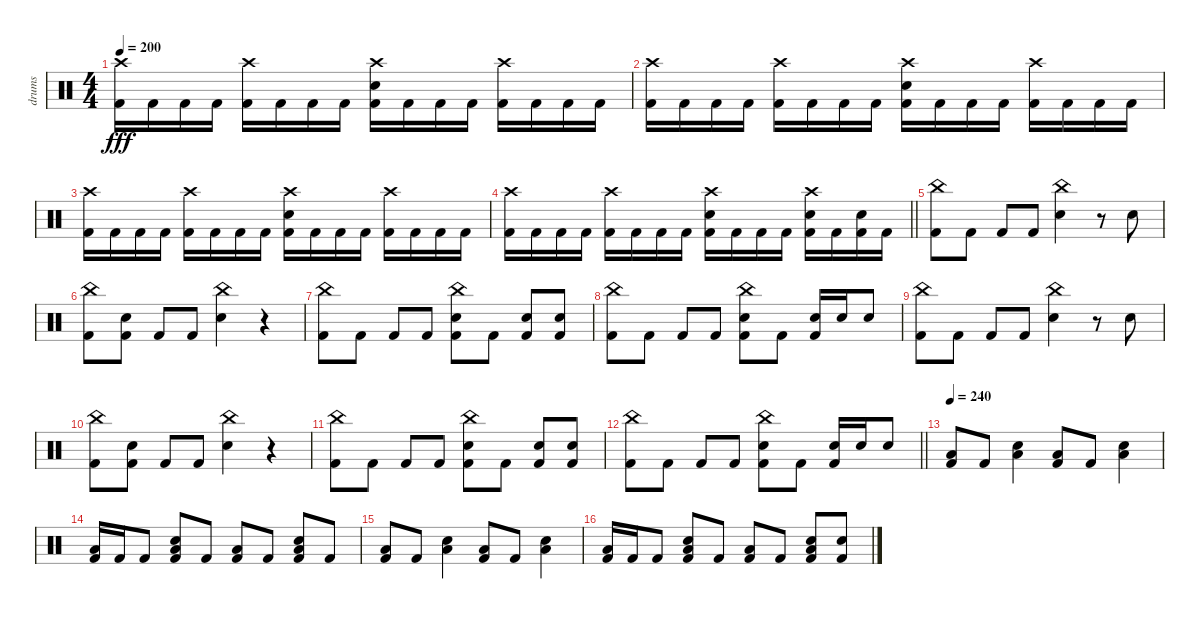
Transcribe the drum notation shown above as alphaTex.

\track ("drums" "drums") {instrument percussion}
\staff {score}
\articulation defaults
\ts (4 4)
\tempo 200
\clef neutral
\ks c
("Crash high (hit)" "Kick (hit) 2").16{dy fff} "Kick (hit) 2".16 "Kick (hit) 2".16 "Kick (hit) 2".16 ("Crash high (hit)" "Kick (hit) 2").16 "Kick (hit) 2".16 "Kick (hit) 2".16 "Kick (hit) 2".16 ("Crash high (hit)" "Electric Snare (hit)" "Kick (hit) 2").16 "Kick (hit) 2".16 "Kick (hit) 2".16 "Kick (hit) 2".16 ("Crash high (hit)" "Kick (hit) 2").16 "Kick (hit) 2".16 "Kick (hit) 2".16 "Kick (hit) 2".16 |
("Crash high (hit)" "Kick (hit) 2").16 "Kick (hit) 2".16 "Kick (hit) 2".16 "Kick (hit) 2".16 ("Crash high (hit)" "Kick (hit) 2").16 "Kick (hit) 2".16 "Kick (hit) 2".16 "Kick (hit) 2".16 ("Crash high (hit)" "Electric Snare (hit)" "Kick (hit) 2").16 "Kick (hit) 2".16 "Kick (hit) 2".16 "Kick (hit) 2".16 ("Crash high (hit)" "Kick (hit) 2").16 "Kick (hit) 2".16 "Kick (hit) 2".16 "Kick (hit) 2".16 |
("Crash high (hit)" "Kick (hit) 2").16 "Kick (hit) 2".16 "Kick (hit) 2".16 "Kick (hit) 2".16 ("Crash high (hit)" "Kick (hit) 2").16 "Kick (hit) 2".16 "Kick (hit) 2".16 "Kick (hit) 2".16 ("Crash high (hit)" "Electric Snare (hit)" "Kick (hit) 2").16 "Kick (hit) 2".16 "Kick (hit) 2".16 "Kick (hit) 2".16 ("Crash high (hit)" "Kick (hit) 2").16 "Kick (hit) 2".16 "Kick (hit) 2".16 "Kick (hit) 2".16 |
\barLineRight lightlight
("Crash high (hit)" "Kick (hit) 2").16 "Kick (hit) 2".16 "Kick (hit) 2".16 "Kick (hit) 2".16 ("Crash high (hit)" "Kick (hit) 2").16 "Kick (hit) 2".16 "Kick (hit) 2".16 "Kick (hit) 2".16 ("Crash high (hit)" "Electric Snare (hit)" "Kick (hit) 2").16 "Kick (hit) 2".16 "Kick (hit) 2".16 "Kick (hit) 2".16 ("Crash high (hit)" "Electric Snare (hit)" "Kick (hit) 2").16 "Kick (hit) 2".16 ("Electric Snare (hit)" "Kick (hit) 2").16 "Kick (hit) 2".16 |
\section ("" "")
("China (hit)" "Kick (hit) 2").8 "Kick (hit) 2".8 "Kick (hit) 2".8 "Kick (hit) 2".8 ("China (hit)" "Electric Snare (hit)").4 r.8 "Electric Snare (hit)".8 |
("China (hit)" "Kick (hit) 2").8 ("Electric Snare (hit)" "Kick (hit) 2").8 "Kick (hit) 2".8 "Kick (hit) 2".8 ("China (hit)" "Electric Snare (hit)").4 r.4 |
("China (hit)" "Kick (hit) 2").8 "Kick (hit) 2".8 "Kick (hit) 2".8 "Kick (hit) 2".8 ("China (hit)" "Electric Snare (hit)" "Kick (hit) 2").8 "Kick (hit) 2".8 ("Electric Snare (hit)" "Kick (hit) 2").8 ("Electric Snare (hit)" "Kick (hit) 2").8 |
("China (hit)" "Kick (hit) 2").8 "Kick (hit) 2".8 "Kick (hit) 2".8 "Kick (hit) 2".8 ("China (hit)" "Electric Snare (hit)" "Kick (hit) 2").8 "Kick (hit) 2".8 ("Electric Snare (hit)" "Kick (hit) 2").16 "Electric Snare (hit)".16 "Electric Snare (hit)".8 |
("China (hit)" "Kick (hit) 2").8 "Kick (hit) 2".8 "Kick (hit) 2".8 "Kick (hit) 2".8 ("China (hit)" "Electric Snare (hit)").4 r.8 "Electric Snare (hit)".8 |
("China (hit)" "Kick (hit) 2").8 ("Electric Snare (hit)" "Kick (hit) 2").8 "Kick (hit) 2".8 "Kick (hit) 2".8 ("China (hit)" "Electric Snare (hit)").4 r.4 |
("China (hit)" "Kick (hit) 2").8 "Kick (hit) 2".8 "Kick (hit) 2".8 "Kick (hit) 2".8 ("China (hit)" "Electric Snare (hit)" "Kick (hit) 2").8 "Kick (hit) 2".8 ("Electric Snare (hit)" "Kick (hit) 2").8 ("Electric Snare (hit)" "Kick (hit) 2").8 |
\barLineRight lightlight
("China (hit)" "Kick (hit) 2").8 "Kick (hit) 2".8 "Kick (hit) 2".8 "Kick (hit) 2".8 ("China (hit)" "Electric Snare (hit)" "Kick (hit) 2").8 "Kick (hit) 2".8 ("Electric Snare (hit)" "Kick (hit) 2").16 "Electric Snare (hit)".16 "Electric Snare (hit)".8 |
\section ("" "")
\tempo 240
("Low Floor Tom (hit)" "Kick (hit) 2").8 "Kick (hit) 2".8 ("Low Floor Tom (hit)" "Electric Snare (hit)").4 ("Low Floor Tom (hit)" "Kick (hit) 2").8 "Kick (hit) 2".8 ("Low Floor Tom (hit)" "Electric Snare (hit)").4 |
("Low Floor Tom (hit)" "Kick (hit) 2").16 "Kick (hit) 2".16 "Kick (hit) 2".8 ("Low Floor Tom (hit)" "Electric Snare (hit)" "Kick (hit) 2").8 "Kick (hit) 2".8 ("Low Floor Tom (hit)" "Kick (hit) 2").8 "Kick (hit) 2".8 ("Low Floor Tom (hit)" "Electric Snare (hit)" "Kick (hit) 2").8 "Kick (hit) 2".8 |
("Low Floor Tom (hit)" "Kick (hit) 2").8 "Kick (hit) 2".8 ("Low Floor Tom (hit)" "Electric Snare (hit)").4 ("Low Floor Tom (hit)" "Kick (hit) 2").8 "Kick (hit) 2".8 ("Low Floor Tom (hit)" "Electric Snare (hit)").4 |
("Low Floor Tom (hit)" "Kick (hit) 2").16 "Kick (hit) 2".16 "Kick (hit) 2".8 ("Low Floor Tom (hit)" "Electric Snare (hit)" "Kick (hit) 2").8 "Kick (hit) 2".8 ("Low Floor Tom (hit)" "Kick (hit) 2").8 "Kick (hit) 2".8 ("Low Floor Tom (hit)" "Electric Snare (hit)" "Kick (hit) 2").8 ("Electric Snare (hit)" "Kick (hit) 2").8
